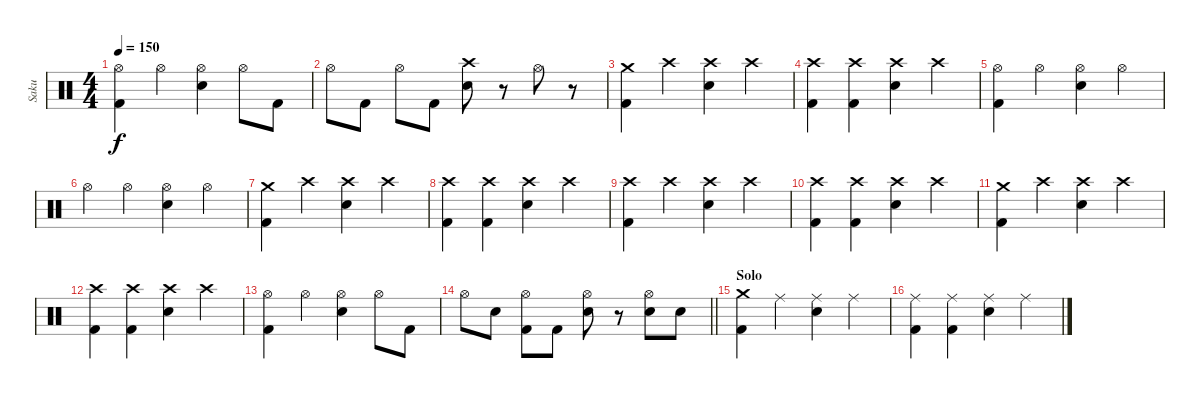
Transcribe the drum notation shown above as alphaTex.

\track ("Saku" "Saku") {instrument percussion}
\staff {score}
\articulation defaults
\ts (4 4)
\tempo 150
\clef neutral
\ks c
("Hi-Hat (open)" "Kick (hit) 2").4{dy f} "Hi-Hat (open)".4 ("Hi-Hat (open)" "Electric Snare (hit)").4 "Hi-Hat (open)".8 "Kick (hit) 2".8 |
"Hi-Hat (open)".8 "Kick (hit) 2".8 "Hi-Hat (open)".8 "Kick (hit) 2".8 ("Crash high (hit)" "Electric Snare (hit)").8 r.8 "Hi-Hat (open)".8 r.8 |
("Crash medium (hit)" "Kick (hit) 2").4 "Crash high (hit)".4 ("Crash high (hit)" "Electric Snare (hit)").4 "Crash high (hit)".4 |
("Crash high (hit)" "Kick (hit) 2").4 ("Crash high (hit)" "Kick (hit) 2").4 ("Crash high (hit)" "Electric Snare (hit)").4 "Crash high (hit)".4 |
("Hi-Hat (open)" "Kick (hit) 2").4 "Hi-Hat (open)".4 ("Hi-Hat (open)" "Electric Snare (hit)").4 "Hi-Hat (open)".4 |
"Hi-Hat (open)".4 "Hi-Hat (open)".4 ("Hi-Hat (open)" "Electric Snare (hit)").4 "Hi-Hat (open)".4 |
("Crash medium (hit)" "Kick (hit) 2").4 "Crash high (hit)".4 ("Crash high (hit)" "Electric Snare (hit)").4 "Crash high (hit)".4 |
("Crash high (hit)" "Kick (hit) 2").4 ("Crash high (hit)" "Kick (hit) 2").4 ("Crash high (hit)" "Electric Snare (hit)").4 "Crash high (hit)".4 |
("Crash high (hit)" "Kick (hit) 2").4 "Crash high (hit)".4 ("Crash high (hit)" "Electric Snare (hit)").4 "Crash high (hit)".4 |
("Crash high (hit)" "Kick (hit) 2").4 ("Crash high (hit)" "Kick (hit) 2").4 ("Crash high (hit)" "Electric Snare (hit)").4 "Crash high (hit)".4 |
("Crash medium (hit)" "Kick (hit) 2").4 "Crash high (hit)".4 ("Crash high (hit)" "Electric Snare (hit)").4 "Crash high (hit)".4 |
("Crash high (hit)" "Kick (hit) 2").4 ("Crash high (hit)" "Kick (hit) 2").4 ("Crash high (hit)" "Electric Snare (hit)").4 "Crash high (hit)".4 |
("Hi-Hat (open)" "Kick (hit) 2").4 "Hi-Hat (open)".4 ("Hi-Hat (open)" "Electric Snare (hit)").4 "Hi-Hat (open)".8 "Kick (hit) 2".8 |
\barLineRight lightlight "Hi-Hat (open)".8 "Electric Snare (hit)".8
("Hi-Hat (open)" "Kick (hit) 2").8 "Kick (hit) 2".8 ("Hi-Hat (open)" "Electric Snare (hit)").8 r.8 ("Hi-Hat (open)" "Electric Snare (hit)").8 "Electric Snare (hit)".8 |
\section ("" "Solo")
("Crash medium (hit)" "Kick (hit) 2").4 "Ride (middle)".4 ("Ride (middle)" "Electric Snare (hit)").4 "Ride (middle)".4 |
("Ride (middle)" "Kick (hit) 2").4 ("Ride (middle)" "Kick (hit) 2").4 ("Ride (middle)" "Electric Snare (hit)").4 "Ride (middle)".4
